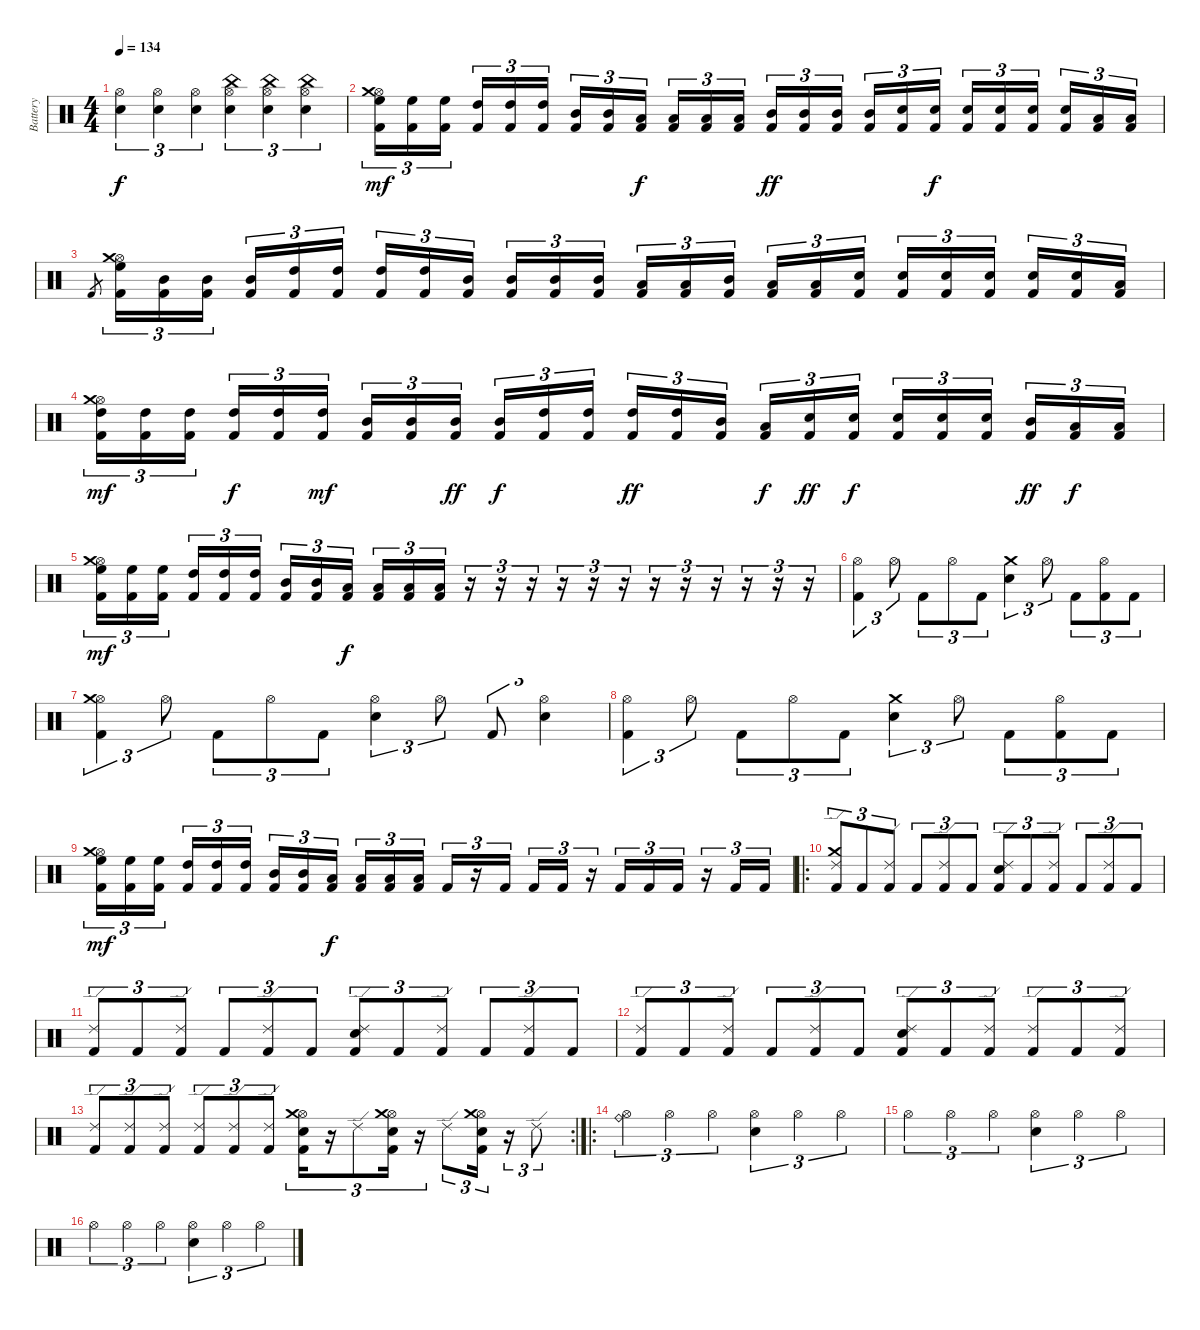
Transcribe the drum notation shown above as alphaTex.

\track ("Battery" "Battery") {instrument percussion}
\staff {score}
\articulation defaults
\ts (4 4)
\tempo 134
\clef neutral
\ks c
("Electric Snare (hit)" "Hi-Hat (open)").4{tu (3 2) dy f} ("Electric Snare (hit)" "Hi-Hat (open)").4{tu (3 2)} ("Electric Snare (hit)" "Hi-Hat (open)").4{tu (3 2)} ("Electric Snare (hit)" "China (hit)" "Hi-Hat (open)").4{tu (3 2)} ("Electric Snare (hit)" "China (hit)" "Hi-Hat (open)").4{tu (3 2)} ("Electric Snare (hit)" "China (hit)" "Hi-Hat (open)").4{tu (3 2)} |
("Kick (hit) 2" "High Floor Tom (hit)" "Hi-Hat (open)" "Crash medium (hit)").16{tu (3 2) dy mf} ("Kick (hit) 2" "High Floor Tom (hit)").16{tu (3 2)} ("Kick (hit) 2" "High Floor Tom (hit)").16{tu (3 2)} ("Kick (hit) 2" "High Tom (hit)").16{tu (3 2)} ("Kick (hit) 2" "High Tom (hit)").16{tu (3 2)} ("Kick (hit) 2" "High Tom (hit)").16{tu (3 2)} ("Kick (hit) 2" "Mid Tom (hit)").16{tu (3 2)} ("Kick (hit) 2" "Mid Tom (hit)").16{tu (3 2)} ("Kick (hit) 2" "Low Tom (hit)").16{tu (3 2) dy f} ("Kick (hit) 2" "Low Tom (hit)").16{tu (3 2)} ("Kick (hit) 2" "Low Tom (hit)").16{tu (3 2)} ("Kick (hit) 2" "Low Tom (hit)").16{tu (3 2)} ("Kick (hit) 2" "Mid Tom (hit)").16{tu (3 2) dy ff} ("Kick (hit) 2" "Mid Tom (hit)").16{tu (3 2)} ("Kick (hit) 2" "Mid Tom (hit)").16{tu (3 2)} ("Kick (hit) 2" "Mid Tom (hit)").16{tu (3 2)} ("Kick (hit) 2" "Electric Snare (hit)").16{tu (3 2)} ("Kick (hit) 2" "Electric Snare (hit)").16{tu (3 2) dy f} ("Kick (hit) 2" "Electric Snare (hit)").16{tu (3 2)} ("Kick (hit) 2" "Electric Snare (hit)").16{tu (3 2)} ("Kick (hit) 2" "Electric Snare (hit)").16{tu (3 2)} ("Kick (hit) 2" "Electric Snare (hit)").16{tu (3 2)} ("Kick (hit) 2" "Low Tom (hit)").16{tu (3 2)} ("Kick (hit) 2" "Low Tom (hit)").16{tu (3 2)} |
"Kick (hit) 2".8{gr} ("Kick (hit) 2" "High Floor Tom (hit)" "Hi-Hat (open)" "Crash medium (hit)").16{tu (3 2)} ("Kick (hit) 2" "Mid Tom (hit)").16{tu (3 2)} ("Kick (hit) 2" "Mid Tom (hit)").16{tu (3 2)} ("Kick (hit) 2" "Mid Tom (hit)").16{tu (3 2)} ("Kick (hit) 2" "High Tom (hit)").16{tu (3 2)} ("Kick (hit) 2" "High Tom (hit)").16{tu (3 2)} ("Kick (hit) 2" "High Tom (hit)").16{tu (3 2)} ("Kick (hit) 2" "High Tom (hit)").16{tu (3 2)} ("Kick (hit) 2" "Mid Tom (hit)").16{tu (3 2)} ("Kick (hit) 2" "Mid Tom (hit)").16{tu (3 2)} ("Kick (hit) 2" "Mid Tom (hit)").16{tu (3 2)} ("Kick (hit) 2" "Mid Tom (hit)").16{tu (3 2)} ("Kick (hit) 2" "Low Tom (hit)").16{tu (3 2)} ("Kick (hit) 2" "Low Tom (hit)").16{tu (3 2)} ("Kick (hit) 2" "Mid Tom (hit)").16{tu (3 2)} ("Kick (hit) 2" "Low Tom (hit)").16{tu (3 2)} ("Kick (hit) 2" "Low Tom (hit)").16{tu (3 2)} ("Kick (hit) 2" "Electric Snare (hit)").16{tu (3 2)} ("Kick (hit) 2" "Electric Snare (hit)").16{tu (3 2)} ("Kick (hit) 2" "Electric Snare (hit)").16{tu (3 2)} ("Kick (hit) 2" "Electric Snare (hit)").16{tu (3 2)} ("Kick (hit) 2" "Electric Snare (hit)").16{tu (3 2)} ("Kick (hit) 2" "Electric Snare (hit)").16{tu (3 2)} ("Kick (hit) 2" "Low Tom (hit)").16{tu (3 2)} |
("Kick (hit) 2" "High Tom (hit)" "Hi-Hat (open)" "Crash medium (hit)").16{tu (3 2) dy mf} ("Kick (hit) 2" "High Tom (hit)").16{tu (3 2)} ("Kick (hit) 2" "High Tom (hit)").16{tu (3 2)} ("Kick (hit) 2" "High Tom (hit)").16{tu (3 2) dy f} ("Kick (hit) 2" "High Tom (hit)").16{tu (3 2)} ("Kick (hit) 2" "High Tom (hit)").16{tu (3 2) dy mf} ("Kick (hit) 2" "Mid Tom (hit)").16{tu (3 2)} ("Kick (hit) 2" "Mid Tom (hit)").16{tu (3 2)} ("Kick (hit) 2" "Mid Tom (hit)").16{tu (3 2) dy ff} ("Kick (hit) 2" "Mid Tom (hit)").16{tu (3 2) dy f} ("Kick (hit) 2" "High Tom (hit)").16{tu (3 2)} ("Kick (hit) 2" "High Tom (hit)").16{tu (3 2)} ("Kick (hit) 2" "High Tom (hit)").16{tu (3 2) dy ff} ("Kick (hit) 2" "High Tom (hit)").16{tu (3 2)} ("Kick (hit) 2" "Mid Tom (hit)").16{tu (3 2)} ("Kick (hit) 2" "Low Tom (hit)").16{tu (3 2) dy f} ("Kick (hit) 2" "Electric Snare (hit)").16{tu (3 2) dy ff} ("Kick (hit) 2" "Electric Snare (hit)").16{tu (3 2) dy f} ("Kick (hit) 2" "Electric Snare (hit)").16{tu (3 2)} ("Kick (hit) 2" "Electric Snare (hit)").16{tu (3 2)} ("Kick (hit) 2" "Electric Snare (hit)").16{tu (3 2)} ("Kick (hit) 2" "Mid Tom (hit)").16{tu (3 2) dy ff} ("Kick (hit) 2" "Low Tom (hit)").16{tu (3 2) dy f} ("Kick (hit) 2" "Low Tom (hit)").16{tu (3 2)} |
("Kick (hit) 2" "High Floor Tom (hit)" "Hi-Hat (open)" "Crash medium (hit)").16{tu (3 2) dy mf} ("Kick (hit) 2" "High Floor Tom (hit)").16{tu (3 2)} ("Kick (hit) 2" "High Floor Tom (hit)").16{tu (3 2)} ("Kick (hit) 2" "High Tom (hit)").16{tu (3 2)} ("Kick (hit) 2" "High Tom (hit)").16{tu (3 2)} ("Kick (hit) 2" "High Tom (hit)").16{tu (3 2)} ("Kick (hit) 2" "Mid Tom (hit)").16{tu (3 2)} ("Kick (hit) 2" "Mid Tom (hit)").16{tu (3 2)} ("Kick (hit) 2" "Low Tom (hit)").16{tu (3 2) dy f} ("Kick (hit) 2" "Low Tom (hit)").16{tu (3 2)} ("Kick (hit) 2" "Low Tom (hit)").16{tu (3 2)} ("Kick (hit) 2" "Low Tom (hit)").16{tu (3 2)} r.16{tu (3 2)} r.16{tu (3 2)} r.16{tu (3 2)} r.16{tu (3 2)} r.16{tu (3 2)} r.16{tu (3 2)} r.16{tu (3 2)} r.16{tu (3 2)} r.16{tu (3 2)} r.16{tu (3 2)} r.16{tu (3 2)} r.16{tu (3 2)} |
("Kick (hit) 2" "Hi-Hat (open)").4{tu (3 2)} "Hi-Hat (open)".8{tu (3 2)} "Kick (hit) 2".8{tu (3 2)} "Hi-Hat (open)".8{tu (3 2)} "Kick (hit) 2".8{tu (3 2)} ("Electric Snare (hit)" "Crash medium (hit)").4{tu (3 2)} "Hi-Hat (open)".8{tu (3 2)} "Kick (hit) 2".8{tu (3 2)} ("Kick (hit) 2" "Hi-Hat (open)").8{tu (3 2)} "Kick (hit) 2".8{tu (3 2)} |
("Kick (hit) 2" "Hi-Hat (open)" "Crash medium (hit)").4{tu (3 2)} "Hi-Hat (open)".8{tu (3 2)} "Kick (hit) 2".8{tu (3 2)} "Hi-Hat (open)".8{tu (3 2)} "Kick (hit) 2".8{tu (3 2)} ("Electric Snare (hit)" "Hi-Hat (open)").4{tu (3 2)} "Hi-Hat (open)".8{tu (3 2)} "Kick (hit) 2".8{tu (3 2)} ("Electric Snare (hit)" "Hi-Hat (open)").4{tu (3 2)} |
("Kick (hit) 2" "Hi-Hat (open)").4{tu (3 2)} "Hi-Hat (open)".8{tu (3 2)} "Kick (hit) 2".8{tu (3 2)} "Hi-Hat (open)".8{tu (3 2)} "Kick (hit) 2".8{tu (3 2)} ("Electric Snare (hit)" "Crash medium (hit)").4{tu (3 2)} "Hi-Hat (open)".8{tu (3 2)} "Kick (hit) 2".8{tu (3 2)} ("Kick (hit) 2" "Hi-Hat (open)").8{tu (3 2)} "Kick (hit) 2".8{tu (3 2)} |
("Kick (hit) 2" "High Floor Tom (hit)" "Hi-Hat (open)" "Crash medium (hit)").16{tu (3 2) dy mf} ("Kick (hit) 2" "High Floor Tom (hit)").16{tu (3 2)} ("Kick (hit) 2" "High Floor Tom (hit)").16{tu (3 2)} ("Kick (hit) 2" "High Tom (hit)").16{tu (3 2)} ("Kick (hit) 2" "High Tom (hit)").16{tu (3 2)} ("Kick (hit) 2" "High Tom (hit)").16{tu (3 2)} ("Kick (hit) 2" "Mid Tom (hit)").16{tu (3 2)} ("Kick (hit) 2" "Mid Tom (hit)").16{tu (3 2)} ("Kick (hit) 2" "Low Tom (hit)").16{tu (3 2) dy f} ("Kick (hit) 2" "Low Tom (hit)").16{tu (3 2)} ("Kick (hit) 2" "Low Tom (hit)").16{tu (3 2)} ("Kick (hit) 2" "Low Tom (hit)").16{tu (3 2)} "Kick (hit) 2".16{tu (3 2)} r.16{tu (3 2)} "Kick (hit) 2".16{tu (3 2)} "Kick (hit) 2".16{tu (3 2)} "Kick (hit) 2".16{tu (3 2)} r.16{tu (3 2)} "Kick (hit) 2".16{tu (3 2)} "Kick (hit) 2".16{tu (3 2)} "Kick (hit) 2".16{tu (3 2)} r.16{tu (3 2)} "Kick (hit) 2".16{tu (3 2)} "Kick (hit) 2".16{tu (3 2)} |
\ro
("Kick (hit) 2" "Ride (edge) 2" "Crash medium (hit)").8{tu (3 2)} "Kick (hit) 2".8{tu (3 2)} ("Kick (hit) 2" "Ride (edge) 2").8{tu (3 2)} "Kick (hit) 2".8{tu (3 2)} ("Kick (hit) 2" "Ride (edge) 2").8{tu (3 2)} "Kick (hit) 2".8{tu (3 2)} ("Kick (hit) 2" "Electric Snare (hit)" "Ride (edge) 2").8{tu (3 2)} "Kick (hit) 2".8{tu (3 2)} ("Kick (hit) 2" "Ride (edge) 2").8{tu (3 2)} "Kick (hit) 2".8{tu (3 2)} ("Kick (hit) 2" "Ride (edge) 2").8{tu (3 2)} "Kick (hit) 2".8{tu (3 2)} |
("Kick (hit) 2" "Ride (edge) 2").8{tu (3 2)} "Kick (hit) 2".8{tu (3 2)} ("Kick (hit) 2" "Ride (edge) 2").8{tu (3 2)} "Kick (hit) 2".8{tu (3 2)} ("Kick (hit) 2" "Ride (edge) 2").8{tu (3 2)} "Kick (hit) 2".8{tu (3 2)} ("Kick (hit) 2" "Electric Snare (hit)" "Ride (edge) 2").8{tu (3 2)} "Kick (hit) 2".8{tu (3 2)} ("Kick (hit) 2" "Ride (edge) 2").8{tu (3 2)} "Kick (hit) 2".8{tu (3 2)} ("Kick (hit) 2" "Ride (edge) 2").8{tu (3 2)} "Kick (hit) 2".8{tu (3 2)} |
("Kick (hit) 2" "Ride (edge) 2").8{tu (3 2)} "Kick (hit) 2".8{tu (3 2)} ("Kick (hit) 2" "Ride (edge) 2").8{tu (3 2)} "Kick (hit) 2".8{tu (3 2)} ("Kick (hit) 2" "Ride (edge) 2").8{tu (3 2)} "Kick (hit) 2".8{tu (3 2)} ("Kick (hit) 2" "Electric Snare (hit)" "Ride (edge) 2").8{tu (3 2)} "Kick (hit) 2".8{tu (3 2)} ("Kick (hit) 2" "Ride (edge) 2").8{tu (3 2)} ("Kick (hit) 2" "Ride (edge) 2").8{tu (3 2)} "Kick (hit) 2".8{tu (3 2)} ("Kick (hit) 2" "Ride (edge) 2").8{tu (3 2)} |
\rc 2
("Kick (hit) 2" "Ride (edge) 2").8{tu (3 2)} ("Ride (edge) 2" "Kick (hit) 2").8{tu (3 2)} ("Kick (hit) 2" "Ride (edge) 2").8{tu (3 2)} ("Kick (hit) 2" "Ride (edge) 2").8{tu (3 2)} ("Kick (hit) 2" "Ride (edge) 2").8{tu (3 2)} ("Kick (hit) 2" "Ride (edge) 2").8{tu (3 2)} ("Hi-Hat (open)" "Electric Snare (hit)" "Crash medium (hit)" "Kick (hit) 2").16{tu (3 2)} r.16{tu (3 2)} "Ride (edge) 2".8{tu (3 2)} ("Hi-Hat (open)" "Electric Snare (hit)" "Crash medium (hit)" "Kick (hit) 2").16{tu (3 2)} r.16{tu (3 2)} "Ride (edge) 2".8{tu (3 2)} ("Hi-Hat (open)" "Electric Snare (hit)" "Crash medium (hit)" "Kick (hit) 2").16{tu (3 2)} r.16{tu (3 2)} "Ride (edge) 2".8{tu (3 2)} |
\ro
("Ride (bell)" "Hi-Hat (open)").4{tu (3 2)} "Hi-Hat (open)".4{tu (3 2)} "Hi-Hat (open)".4{tu (3 2)} ("Electric Snare (hit)" "Hi-Hat (open)").4{tu (3 2)} "Hi-Hat (open)".4{tu (3 2)} "Hi-Hat (open)".4{tu (3 2)} |
"Hi-Hat (open)".4{tu (3 2)} "Hi-Hat (open)".4{tu (3 2)} "Hi-Hat (open)".4{tu (3 2)} ("Electric Snare (hit)" "Hi-Hat (open)").4{tu (3 2)} "Hi-Hat (open)".4{tu (3 2)} "Hi-Hat (open)".4{tu (3 2)} |
"Hi-Hat (open)".4{tu (3 2)} "Hi-Hat (open)".4{tu (3 2)} "Hi-Hat (open)".4{tu (3 2)} ("Electric Snare (hit)" "Hi-Hat (open)").4{tu (3 2)} "Hi-Hat (open)".4{tu (3 2)} "Hi-Hat (open)".4{tu (3 2)}
